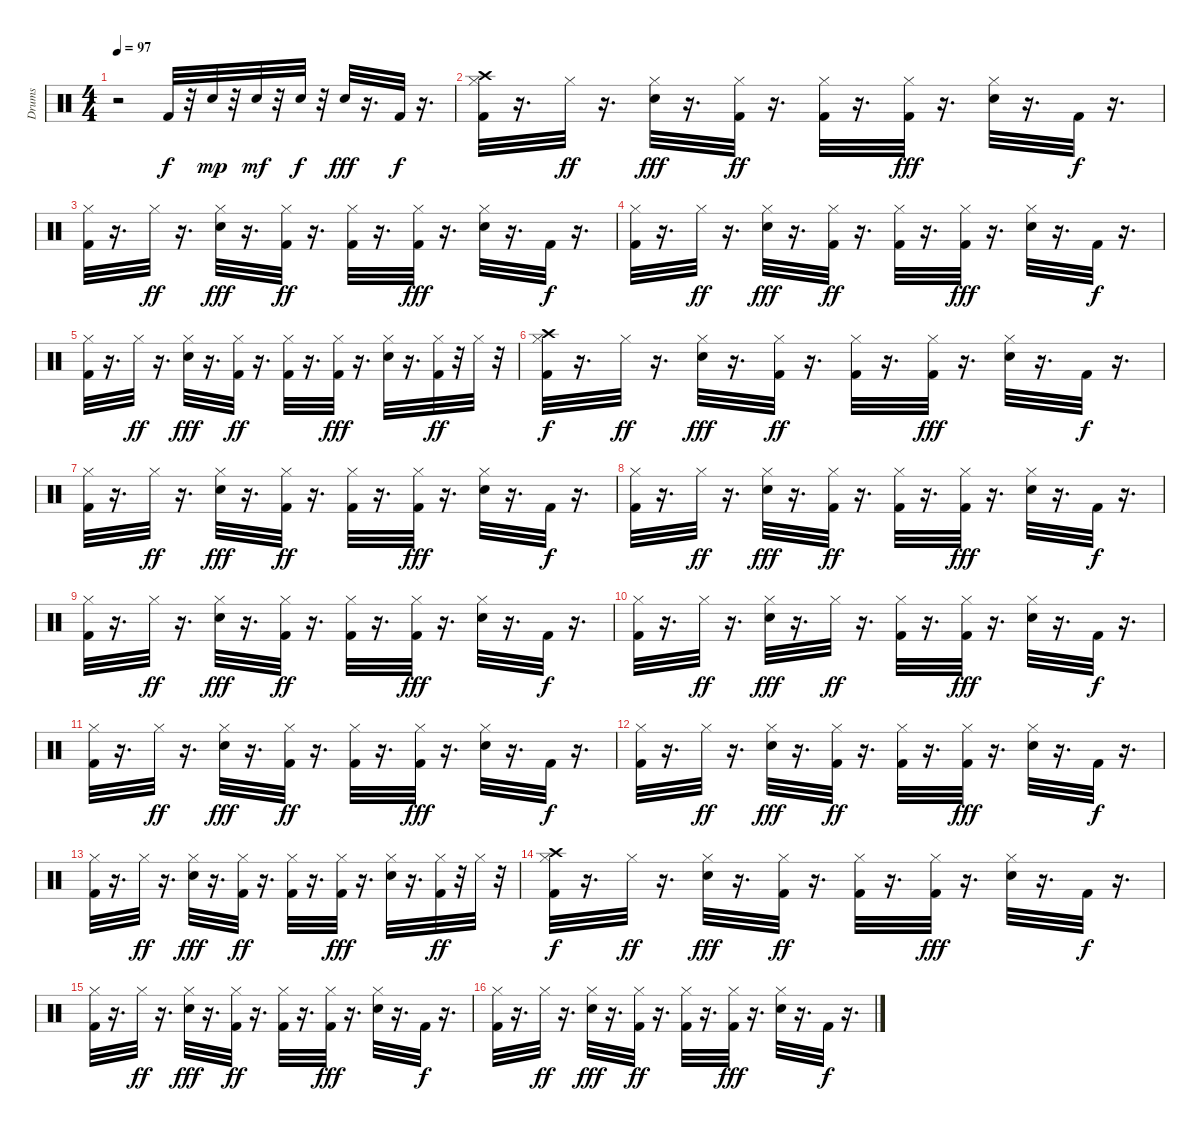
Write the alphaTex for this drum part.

\track ("Drums" "Drums") {instrument percussion}
\staff {score}
\articulation defaults
\ts (4 4)
\tempo 97
\clef neutral
\ks c
r.2{dy f} "Kick (hit) 2".32 r.32 "Electric Snare (hit)".32{dy mp} r.32 "Electric Snare (hit)".32{dy mf} r.32 "Electric Snare (hit)".32{dy f} r.32 "Electric Snare (hit)".32{dy fff} r.16{d} "Kick (hit) 2".32{dy f} r.16{d} |
("Crash high (hit)" "Hi-Hat (closed)" "Kick (hit) 2").32 r.16{d} "Hi-Hat (closed)".32{dy ff} r.16{d} ("Hi-Hat (closed)" "Electric Snare (hit)").32{dy fff} r.16{d} ("Hi-Hat (closed)" "Kick (hit) 2").32{dy ff} r.16{d} ("Hi-Hat (closed)" "Kick (hit) 2").32 r.16{d} ("Hi-Hat (closed)" "Kick (hit) 2").32{dy fff} r.16{d} ("Hi-Hat (closed)" "Electric Snare (hit)").32 r.16{d} "Kick (hit) 2".32{dy f} r.16{d} |
("Hi-Hat (closed)" "Kick (hit) 2").32 r.16{d} "Hi-Hat (closed)".32{dy ff} r.16{d} ("Hi-Hat (closed)" "Electric Snare (hit)").32{dy fff} r.16{d} ("Hi-Hat (closed)" "Kick (hit) 2").32{dy ff} r.16{d} ("Hi-Hat (closed)" "Kick (hit) 2").32 r.16{d} ("Hi-Hat (closed)" "Kick (hit) 2").32{dy fff} r.16{d} ("Hi-Hat (closed)" "Electric Snare (hit)").32 r.16{d} "Kick (hit) 2".32{dy f} r.16{d} |
("Hi-Hat (closed)" "Kick (hit) 2").32 r.16{d} "Hi-Hat (closed)".32{dy ff} r.16{d} ("Hi-Hat (closed)" "Electric Snare (hit)").32{dy fff} r.16{d} ("Hi-Hat (closed)" "Kick (hit) 2").32{dy ff} r.16{d} ("Hi-Hat (closed)" "Kick (hit) 2").32 r.16{d} ("Hi-Hat (closed)" "Kick (hit) 2").32{dy fff} r.16{d} ("Hi-Hat (closed)" "Electric Snare (hit)").32 r.16{d} "Kick (hit) 2".32{dy f} r.16{d} |
("Hi-Hat (closed)" "Kick (hit) 2").32 r.16{d} "Hi-Hat (closed)".32{dy ff} r.16{d} ("Hi-Hat (closed)" "Electric Snare (hit)").32{dy fff} r.16{d} ("Hi-Hat (closed)" "Kick (hit) 2").32{dy ff} r.16{d} ("Hi-Hat (closed)" "Kick (hit) 2").32 r.16{d} ("Hi-Hat (closed)" "Kick (hit) 2").32{dy fff} r.16{d} ("Hi-Hat (closed)" "Electric Snare (hit)").32 r.16{d} ("Hi-Hat (closed)" "Kick (hit) 2").32{dy ff} r.32 "Hi-Hat (closed)".32 r.32 |
("Crash high (hit)" "Hi-Hat (closed)" "Kick (hit) 2").32{dy f} r.16{d} "Hi-Hat (closed)".32{dy ff} r.16{d} ("Hi-Hat (closed)" "Electric Snare (hit)").32{dy fff} r.16{d} ("Hi-Hat (closed)" "Kick (hit) 2").32{dy ff} r.16{d} ("Hi-Hat (closed)" "Kick (hit) 2").32 r.16{d} ("Hi-Hat (closed)" "Kick (hit) 2").32{dy fff} r.16{d} ("Hi-Hat (closed)" "Electric Snare (hit)").32 r.16{d} "Kick (hit) 2".32{dy f} r.16{d} |
("Hi-Hat (closed)" "Kick (hit) 2").32 r.16{d} "Hi-Hat (closed)".32{dy ff} r.16{d} ("Hi-Hat (closed)" "Electric Snare (hit)").32{dy fff} r.16{d} ("Hi-Hat (closed)" "Kick (hit) 2").32{dy ff} r.16{d} ("Hi-Hat (closed)" "Kick (hit) 2").32 r.16{d} ("Hi-Hat (closed)" "Kick (hit) 2").32{dy fff} r.16{d} ("Hi-Hat (closed)" "Electric Snare (hit)").32 r.16{d} "Kick (hit) 2".32{dy f} r.16{d} |
("Hi-Hat (closed)" "Kick (hit) 2").32 r.16{d} "Hi-Hat (closed)".32{dy ff} r.16{d} ("Hi-Hat (closed)" "Electric Snare (hit)").32{dy fff} r.16{d} ("Hi-Hat (closed)" "Kick (hit) 2").32{dy ff} r.16{d} ("Hi-Hat (closed)" "Kick (hit) 2").32 r.16{d} ("Hi-Hat (closed)" "Kick (hit) 2").32{dy fff} r.16{d} ("Hi-Hat (closed)" "Electric Snare (hit)").32 r.16{d} "Kick (hit) 2".32{dy f} r.16{d} |
("Hi-Hat (closed)" "Kick (hit) 2").32 r.16{d} "Hi-Hat (closed)".32{dy ff} r.16{d} ("Hi-Hat (closed)" "Electric Snare (hit)").32{dy fff} r.16{d} ("Hi-Hat (closed)" "Kick (hit) 2").32{dy ff} r.16{d} ("Hi-Hat (closed)" "Kick (hit) 2").32 r.16{d} ("Hi-Hat (closed)" "Kick (hit) 2").32{dy fff} r.16{d} ("Hi-Hat (closed)" "Electric Snare (hit)").32 r.16{d} "Kick (hit) 2".32{dy f} r.16{d} |
("Hi-Hat (closed)" "Kick (hit) 2").32 r.16{d} "Hi-Hat (closed)".32{dy ff} r.16{d} ("Hi-Hat (closed)" "Electric Snare (hit)").32{dy fff} r.16{d} "Hi-Hat (closed)".32{dy ff} r.16{d} ("Hi-Hat (closed)" "Kick (hit) 2").32 r.16{d} ("Hi-Hat (closed)" "Kick (hit) 2").32{dy fff} r.16{d} ("Hi-Hat (closed)" "Electric Snare (hit)").32 r.16{d} "Kick (hit) 2".32{dy f} r.16{d} |
("Hi-Hat (closed)" "Kick (hit) 2").32 r.16{d} "Hi-Hat (closed)".32{dy ff} r.16{d} ("Hi-Hat (closed)" "Electric Snare (hit)").32{dy fff} r.16{d} ("Hi-Hat (closed)" "Kick (hit) 2").32{dy ff} r.16{d} ("Hi-Hat (closed)" "Kick (hit) 2").32 r.16{d} ("Hi-Hat (closed)" "Kick (hit) 2").32{dy fff} r.16{d} ("Hi-Hat (closed)" "Electric Snare (hit)").32 r.16{d} "Kick (hit) 2".32{dy f} r.16{d} |
("Hi-Hat (closed)" "Kick (hit) 2").32 r.16{d} "Hi-Hat (closed)".32{dy ff} r.16{d} ("Hi-Hat (closed)" "Electric Snare (hit)").32{dy fff} r.16{d} ("Hi-Hat (closed)" "Kick (hit) 2").32{dy ff} r.16{d} ("Hi-Hat (closed)" "Kick (hit) 2").32 r.16{d} ("Hi-Hat (closed)" "Kick (hit) 2").32{dy fff} r.16{d} ("Hi-Hat (closed)" "Electric Snare (hit)").32 r.16{d} "Kick (hit) 2".32{dy f} r.16{d} |
("Hi-Hat (closed)" "Kick (hit) 2").32 r.16{d} "Hi-Hat (closed)".32{dy ff} r.16{d} ("Hi-Hat (closed)" "Electric Snare (hit)").32{dy fff} r.16{d} ("Hi-Hat (closed)" "Kick (hit) 2").32{dy ff} r.16{d} ("Hi-Hat (closed)" "Kick (hit) 2").32 r.16{d} ("Hi-Hat (closed)" "Kick (hit) 2").32{dy fff} r.16{d} ("Hi-Hat (closed)" "Electric Snare (hit)").32 r.16{d} ("Hi-Hat (closed)" "Kick (hit) 2").32{dy ff} r.32 "Hi-Hat (closed)".32 r.32 |
("Crash high (hit)" "Hi-Hat (closed)" "Kick (hit) 2").32{dy f} r.16{d} "Hi-Hat (closed)".32{dy ff} r.16{d} ("Hi-Hat (closed)" "Electric Snare (hit)").32{dy fff} r.16{d} ("Hi-Hat (closed)" "Kick (hit) 2").32{dy ff} r.16{d} ("Hi-Hat (closed)" "Kick (hit) 2").32 r.16{d} ("Hi-Hat (closed)" "Kick (hit) 2").32{dy fff} r.16{d} ("Hi-Hat (closed)" "Electric Snare (hit)").32 r.16{d} "Kick (hit) 2".32{dy f} r.16{d} |
("Hi-Hat (closed)" "Kick (hit) 2").32 r.16{d} "Hi-Hat (closed)".32{dy ff} r.16{d} ("Hi-Hat (closed)" "Electric Snare (hit)").32{dy fff} r.16{d} ("Hi-Hat (closed)" "Kick (hit) 2").32{dy ff} r.16{d} ("Hi-Hat (closed)" "Kick (hit) 2").32 r.16{d} ("Hi-Hat (closed)" "Kick (hit) 2").32{dy fff} r.16{d} ("Hi-Hat (closed)" "Electric Snare (hit)").32 r.16{d} "Kick (hit) 2".32{dy f} r.16{d} |
("Hi-Hat (closed)" "Kick (hit) 2").32 r.16{d} "Hi-Hat (closed)".32{dy ff} r.16{d} ("Hi-Hat (closed)" "Electric Snare (hit)").32{dy fff} r.16{d} ("Hi-Hat (closed)" "Kick (hit) 2").32{dy ff} r.16{d} ("Hi-Hat (closed)" "Kick (hit) 2").32 r.16{d} ("Hi-Hat (closed)" "Kick (hit) 2").32{dy fff} r.16{d} ("Hi-Hat (closed)" "Electric Snare (hit)").32 r.16{d} "Kick (hit) 2".32{dy f} r.16{d}
